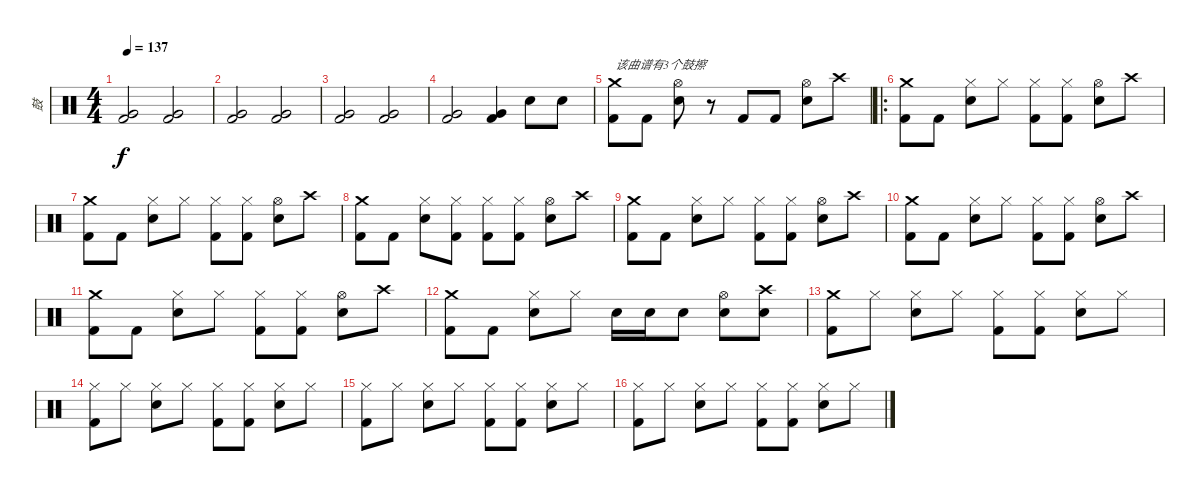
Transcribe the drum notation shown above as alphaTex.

\track ("鼓" "鼓") {instrument percussion}
\staff {score}
\articulation defaults
\ts (4 4)
\tempo 137
\clef neutral
\ks c
("Very Low Tom (hit)" "Kick (hit) 2").2{dy f} ("Very Low Tom (hit)" "Kick (hit) 2").2 |
("Very Low Tom (hit)" "Kick (hit) 2").2 ("Very Low Tom (hit)" "Kick (hit) 2").2 |
("Very Low Tom (hit)" "Kick (hit) 2").2 ("Very Low Tom (hit)" "Kick (hit) 2").2 |
("Very Low Tom (hit)" "Kick (hit) 2").2 ("Very Low Tom (hit)" "Kick (hit) 2").4 "Snare (hit) 2".8 "Snare (hit) 2".8 |
("Crash medium (hit)" "Kick (hit) 2").8{txt "该曲谱有3个鼓擦"} "Kick (hit) 2".8 ("Snare (hit) 2" "Hi-Hat (open)").8 r.8 "Kick (hit) 2".8 "Kick (hit) 2".8 ("Snare (hit) 2" "Hi-Hat (open)").8 "Crash high (hit)".8 |
\ro
("Crash medium (hit)" "Kick (hit) 2").8 "Kick (hit) 2".8 ("Hi-Hat (closed)" "Snare (hit) 2").8 "Hi-Hat (closed)".8 ("Hi-Hat (closed)" "Kick (hit) 2").8 ("Hi-Hat (closed)" "Kick (hit) 2").8 ("Hi-Hat (open)" "Snare (hit) 2").8 "Crash high (hit)".8 |
("Crash medium (hit)" "Kick (hit) 2").8 "Kick (hit) 2".8 ("Hi-Hat (closed)" "Snare (hit) 2").8 "Hi-Hat (closed)".8 ("Hi-Hat (closed)" "Kick (hit) 2").8 ("Hi-Hat (closed)" "Kick (hit) 2").8 ("Hi-Hat (open)" "Snare (hit) 2").8 "Crash high (hit)".8 |
("Crash medium (hit)" "Kick (hit) 2").8 "Kick (hit) 2".8 ("Hi-Hat (closed)" "Snare (hit) 2").8 ("Hi-Hat (closed)" "Kick (hit) 2").8 ("Hi-Hat (closed)" "Kick (hit) 2").8 ("Hi-Hat (closed)" "Kick (hit) 2").8 ("Hi-Hat (open)" "Snare (hit) 2").8 "Crash high (hit)".8 |
("Crash medium (hit)" "Kick (hit) 2").8 "Kick (hit) 2".8 ("Hi-Hat (closed)" "Snare (hit) 2").8 "Hi-Hat (closed)".8 ("Hi-Hat (closed)" "Kick (hit) 2").8 ("Hi-Hat (closed)" "Kick (hit) 2").8 ("Hi-Hat (open)" "Snare (hit) 2").8 "Crash high (hit)".8 |
("Crash medium (hit)" "Kick (hit) 2").8 "Kick (hit) 2".8 ("Hi-Hat (closed)" "Snare (hit) 2").8 "Hi-Hat (closed)".8 ("Hi-Hat (closed)" "Kick (hit) 2").8 ("Hi-Hat (closed)" "Kick (hit) 2").8 ("Hi-Hat (open)" "Snare (hit) 2").8 "Crash high (hit)".8 |
("Crash medium (hit)" "Kick (hit) 2").8 "Kick (hit) 2".8 ("Hi-Hat (closed)" "Snare (hit) 2").8 "Hi-Hat (closed)".8 ("Hi-Hat (closed)" "Kick (hit) 2").8 ("Hi-Hat (closed)" "Kick (hit) 2").8 ("Hi-Hat (open)" "Snare (hit) 2").8 "Crash high (hit)".8 |
("Crash medium (hit)" "Kick (hit) 2").8 "Kick (hit) 2".8 ("Hi-Hat (closed)" "Snare (hit) 2").8 "Hi-Hat (closed)".8 "Snare (hit) 2".16 "Snare (hit) 2".16 "Snare (hit) 2".8 ("Hi-Hat (open)" "Snare (hit) 2").8 ("Crash high (hit)" "Snare (hit) 2").8 |
("Crash medium (hit)" "Kick (hit) 2").8 "Hi-Hat (closed)".8 ("Hi-Hat (closed)" "Snare (hit) 2").8 "Hi-Hat (closed)".8 ("Hi-Hat (closed)" "Kick (hit) 2").8 ("Hi-Hat (closed)" "Kick (hit) 2").8 ("Hi-Hat (closed)" "Snare (hit) 2").8 "Hi-Hat (closed)".8 |
("Hi-Hat (closed)" "Kick (hit) 2").8 "Hi-Hat (closed)".8 ("Hi-Hat (closed)" "Snare (hit) 2").8 "Hi-Hat (closed)".8 ("Hi-Hat (closed)" "Kick (hit) 2").8 ("Hi-Hat (closed)" "Kick (hit) 2").8 ("Hi-Hat (closed)" "Snare (hit) 2").8 "Hi-Hat (closed)".8 |
("Hi-Hat (closed)" "Kick (hit) 2").8 "Hi-Hat (closed)".8 ("Hi-Hat (closed)" "Snare (hit) 2").8 "Hi-Hat (closed)".8 ("Hi-Hat (closed)" "Kick (hit) 2").8 ("Hi-Hat (closed)" "Kick (hit) 2").8 ("Hi-Hat (closed)" "Snare (hit) 2").8 "Hi-Hat (closed)".8 |
("Hi-Hat (closed)" "Kick (hit) 2").8 "Hi-Hat (closed)".8 ("Hi-Hat (closed)" "Snare (hit) 2").8 "Hi-Hat (closed)".8 ("Hi-Hat (closed)" "Kick (hit) 2").8 ("Hi-Hat (closed)" "Kick (hit) 2").8 ("Hi-Hat (closed)" "Snare (hit) 2").8 "Hi-Hat (closed)".8
